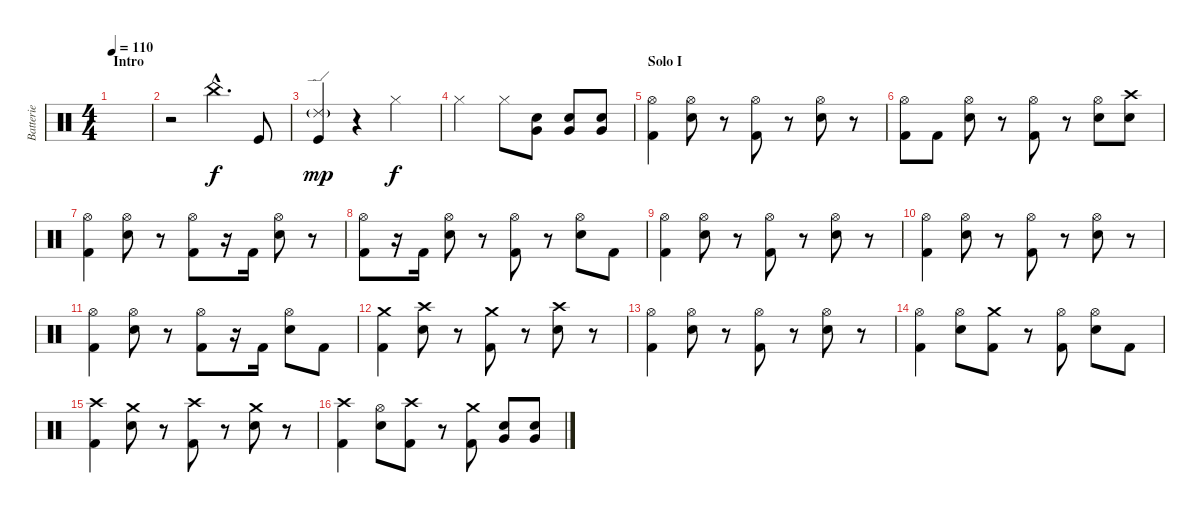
\track ("Batterie" "Batterie") {instrument percussion}
\staff {score}
\articulation defaults
\ts (4 4)
\section ("" "Intro")
\tempo 110
\clef neutral
\ks c
|
r.2 "China (hit)"{hac}.4{d} "Kick (hit)".8 |
("Ride (edge) 2"{g} "Kick (hit)").4{dy mp} r.4 "Hi-Hat (closed)".2{dy f} |
"Hi-Hat (closed)".2 "Hi-Hat (closed)".8 ("Very Low Tom (hit)" "Electric Snare (hit)").8 ("Very Low Tom (hit)" "Electric Snare (hit)").8 ("Very Low Tom (hit)" "Electric Snare (hit)").8 |
\section ("" "Solo I")
("Hi-Hat (open)" "Kick (hit) 2").4 ("Hi-Hat (open)" "Electric Snare (hit)").8 r.8 ("Hi-Hat (open)" "Kick (hit) 2").8 r.8 ("Hi-Hat (open)" "Electric Snare (hit)").8 r.8 |
("Hi-Hat (open)" "Kick (hit) 2").8 "Kick (hit) 2".8 ("Hi-Hat (open)" "Electric Snare (hit)").8 r.8 ("Hi-Hat (open)" "Kick (hit) 2").8 r.8 ("Hi-Hat (open)" "Electric Snare (hit)").8 ("Crash high (hit)" "Electric Snare (hit)").8 |
("Hi-Hat (open)" "Kick (hit) 2").4 ("Hi-Hat (open)" "Electric Snare (hit)").8 r.8 ("Hi-Hat (open)" "Kick (hit) 2").8 r.16 "Kick (hit) 2".16 ("Hi-Hat (open)" "Electric Snare (hit)").8 r.8 |
("Hi-Hat (open)" "Kick (hit) 2").8 r.16 "Kick (hit) 2".16 ("Hi-Hat (open)" "Electric Snare (hit)").8 r.8 ("Hi-Hat (open)" "Kick (hit) 2").8 r.8 ("Hi-Hat (open)" "Electric Snare (hit)").8 "Kick (hit) 2".8 |
("Hi-Hat (open)" "Kick (hit) 2").4 ("Hi-Hat (open)" "Electric Snare (hit)").8 r.8 ("Hi-Hat (open)" "Kick (hit) 2").8 r.8 ("Hi-Hat (open)" "Electric Snare (hit)").8 r.8 |
("Hi-Hat (open)" "Kick (hit) 2").4 ("Hi-Hat (open)" "Electric Snare (hit)").8 r.8 ("Hi-Hat (open)" "Kick (hit) 2").8 r.8 ("Hi-Hat (open)" "Electric Snare (hit)").8 r.8 |
("Hi-Hat (open)" "Kick (hit) 2").4 ("Hi-Hat (open)" "Electric Snare (hit)").8 r.8 ("Hi-Hat (open)" "Kick (hit) 2").8 r.16 "Kick (hit) 2".16 ("Hi-Hat (open)" "Electric Snare (hit)").8 "Kick (hit) 2".8 |
("Crash medium (hit)" "Kick (hit) 2").4 ("Crash high (hit)" "Electric Snare (hit)").8 r.8 ("Crash medium (hit)" "Kick (hit) 2").8 r.8 ("Crash high (hit)" "Electric Snare (hit)").8 r.8 |
("Hi-Hat (open)" "Kick (hit) 2").4 ("Hi-Hat (open)" "Electric Snare (hit)").8 r.8 ("Hi-Hat (open)" "Kick (hit) 2").8 r.8 ("Hi-Hat (open)" "Electric Snare (hit)").8 r.8 |
("Hi-Hat (open)" "Kick (hit) 2").4 ("Hi-Hat (open)" "Electric Snare (hit)").8 ("Crash medium (hit)" "Kick (hit) 2").8 r.8 ("Hi-Hat (open)" "Kick (hit) 2").8 ("Hi-Hat (open)" "Electric Snare (hit)").8 "Kick (hit) 2".8 |
("Crash high (hit)" "Kick (hit) 2").4 ("Crash medium (hit)" "Electric Snare (hit)").8 r.8 ("Crash high (hit)" "Kick (hit) 2").8 r.8 ("Crash medium (hit)" "Electric Snare (hit)").8 r.8 |
("Crash high (hit)" "Kick (hit) 2").4 ("Hi-Hat (open)" "Electric Snare (hit)").8 ("Crash high (hit)" "Kick (hit) 2").8 r.8 ("Crash medium (hit)" "Kick (hit) 2").8 ("Very Low Tom (hit)" "Electric Snare (hit)").8 ("Very Low Tom (hit)" "Electric Snare (hit)").8
